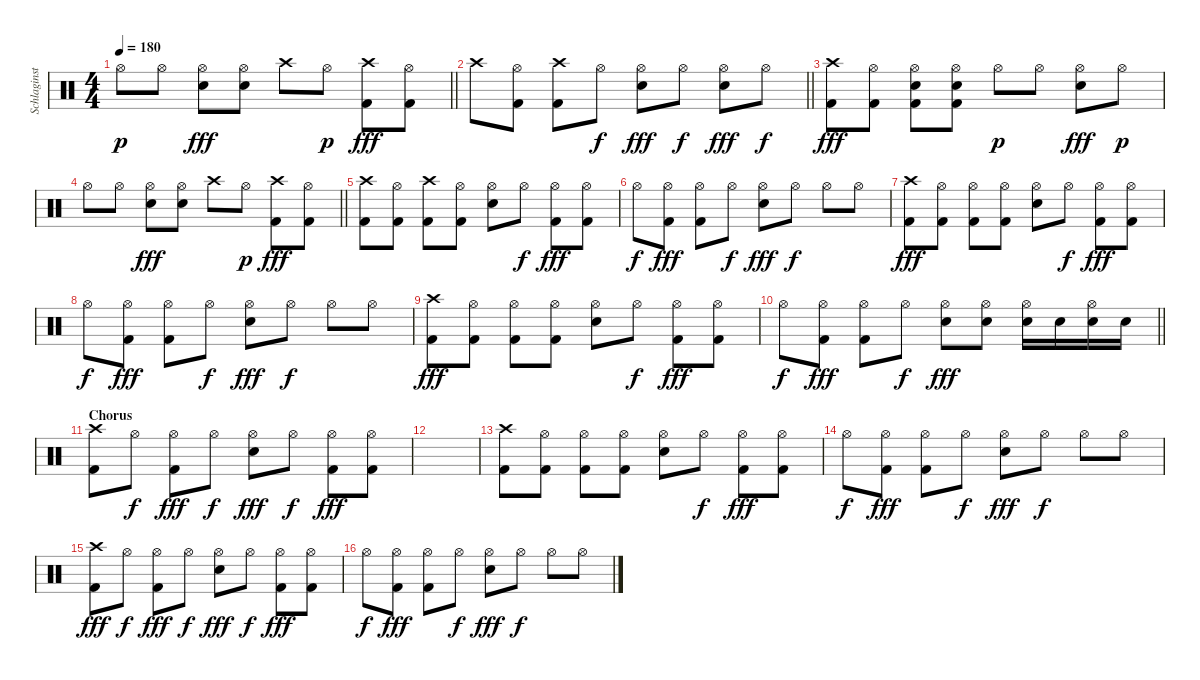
\track ("Schlaginstrumente - Auswahl" "Schlaginst") {instrument percussion}
\staff {score}
\articulation defaults
\ts (4 4)
\tempo 180
\clef neutral
\barLineRight lightlight
\ks c "Hi-Hat (open)".8{dy p} "Hi-Hat (open)".8
("Hi-Hat (open)" "Snare (hit) 2").8{dy fff} ("Hi-Hat (open)" "Snare (hit) 2").8 "Crash high (hit)".8 "Hi-Hat (open)".8{dy p} ("Crash high (hit)" "Kick (hit) 2").8{dy fff} ("Hi-Hat (open)" "Kick (hit) 2").8 |
\barLineRight lightlight "Crash high (hit)".8
("Hi-Hat (open)" "Kick (hit) 2").8 ("Crash high (hit)" "Kick (hit) 2").8 "Hi-Hat (open)".8{dy f} ("Hi-Hat (open)" "Snare (hit) 2").8{dy fff} "Hi-Hat (open)".8{dy f} ("Hi-Hat (open)" "Snare (hit) 2").8{dy fff} "Hi-Hat (open)".8{dy f} |
("Crash high (hit)" "Kick (hit) 2").8{dy fff} ("Hi-Hat (open)" "Kick (hit) 2").8 ("Hi-Hat (open)" "Snare (hit) 2" "Kick (hit) 2").8 ("Hi-Hat (open)" "Snare (hit) 2" "Kick (hit) 2").8 "Hi-Hat (open)".8{dy p} "Hi-Hat (open)".8 ("Hi-Hat (open)" "Snare (hit) 2").8{dy fff} "Hi-Hat (open)".8{dy p} |
\barLineRight lightlight "Hi-Hat (open)".8 "Hi-Hat (open)".8
("Hi-Hat (open)" "Snare (hit) 2").8{dy fff} ("Hi-Hat (open)" "Snare (hit) 2").8 "Crash high (hit)".8 "Hi-Hat (open)".8{dy p} ("Crash high (hit)" "Kick (hit) 2").8{dy fff} ("Hi-Hat (open)" "Kick (hit) 2").8 |
("Crash high (hit)" "Kick (hit) 2").8 ("Hi-Hat (open)" "Kick (hit) 2").8 ("Crash high (hit)" "Kick (hit) 2").8 ("Hi-Hat (open)" "Kick (hit) 2").8 ("Hi-Hat (open)" "Snare (hit) 2").8 "Hi-Hat (open)".8{dy f} ("Hi-Hat (open)" "Kick (hit) 2").8{dy fff} ("Hi-Hat (open)" "Kick (hit) 2").8 |
"Hi-Hat (open)".8{dy f} ("Hi-Hat (open)" "Kick (hit) 2").8{dy fff} ("Hi-Hat (open)" "Kick (hit) 2").8 "Hi-Hat (open)".8{dy f} ("Hi-Hat (open)" "Snare (hit) 2").8{dy fff} "Hi-Hat (open)".8{dy f} "Hi-Hat (open)".8 "Hi-Hat (open)".8 |
("Crash high (hit)" "Kick (hit) 2").8{dy fff} ("Hi-Hat (open)" "Kick (hit) 2").8 ("Hi-Hat (open)" "Kick (hit) 2").8 ("Hi-Hat (open)" "Kick (hit) 2").8 ("Hi-Hat (open)" "Snare (hit) 2").8 "Hi-Hat (open)".8{dy f} ("Hi-Hat (open)" "Kick (hit) 2").8{dy fff} ("Hi-Hat (open)" "Kick (hit) 2").8 |
"Hi-Hat (open)".8{dy f} ("Hi-Hat (open)" "Kick (hit) 2").8{dy fff} ("Hi-Hat (open)" "Kick (hit) 2").8 "Hi-Hat (open)".8{dy f} ("Hi-Hat (open)" "Snare (hit) 2").8{dy fff} "Hi-Hat (open)".8{dy f} "Hi-Hat (open)".8 "Hi-Hat (open)".8 |
("Crash high (hit)" "Kick (hit) 2").8{dy fff} ("Hi-Hat (open)" "Kick (hit) 2").8 ("Hi-Hat (open)" "Kick (hit) 2").8 ("Hi-Hat (open)" "Kick (hit) 2").8 ("Hi-Hat (open)" "Snare (hit) 2").8 "Hi-Hat (open)".8{dy f} ("Hi-Hat (open)" "Kick (hit) 2").8{dy fff} ("Hi-Hat (open)" "Kick (hit) 2").8 |
\barLineRight lightlight "Hi-Hat (open)".8{dy f}
("Hi-Hat (open)" "Kick (hit) 2").8{dy fff} ("Hi-Hat (open)" "Kick (hit) 2").8 "Hi-Hat (open)".8{dy f} ("Hi-Hat (open)" "Snare (hit) 2").8{dy fff} ("Hi-Hat (open)" "Snare (hit) 2").8 ("Hi-Hat (open)" "Snare (hit) 2").16 "Snare (hit) 2".16 ("Hi-Hat (open)" "Snare (hit) 2").16 "Snare (hit) 2".16 |
\section ("" "Chorus")
("Crash high (hit)" "Kick (hit) 2").8 "Hi-Hat (open)".8{dy f} ("Hi-Hat (open)" "Kick (hit) 2").8{dy fff} "Hi-Hat (open)".8{dy f} ("Hi-Hat (open)" "Snare (hit) 2").8{dy fff} "Hi-Hat (open)".8{dy f} ("Hi-Hat (open)" "Kick (hit) 2").8{dy fff} ("Hi-Hat (open)" "Kick (hit) 2").8 |
|
("Crash high (hit)" "Kick (hit) 2").8 ("Hi-Hat (open)" "Kick (hit) 2").8 ("Hi-Hat (open)" "Kick (hit) 2").8 ("Hi-Hat (open)" "Kick (hit) 2").8 ("Hi-Hat (open)" "Snare (hit) 2").8 "Hi-Hat (open)".8{dy f} ("Hi-Hat (open)" "Kick (hit) 2").8{dy fff} ("Hi-Hat (open)" "Kick (hit) 2").8 |
"Hi-Hat (open)".8{dy f} ("Hi-Hat (open)" "Kick (hit) 2").8{dy fff} ("Hi-Hat (open)" "Kick (hit) 2").8 "Hi-Hat (open)".8{dy f} ("Hi-Hat (open)" "Snare (hit) 2").8{dy fff} "Hi-Hat (open)".8{dy f} "Hi-Hat (open)".8 "Hi-Hat (open)".8 |
("Crash high (hit)" "Kick (hit) 2").8{dy fff} "Hi-Hat (open)".8{dy f} ("Hi-Hat (open)" "Kick (hit) 2").8{dy fff} "Hi-Hat (open)".8{dy f} ("Hi-Hat (open)" "Snare (hit) 2").8{dy fff} "Hi-Hat (open)".8{dy f} ("Hi-Hat (open)" "Kick (hit) 2").8{dy fff} ("Hi-Hat (open)" "Kick (hit) 2").8 |
"Hi-Hat (open)".8{dy f} ("Hi-Hat (open)" "Kick (hit) 2").8{dy fff} ("Hi-Hat (open)" "Kick (hit) 2").8 "Hi-Hat (open)".8{dy f} ("Hi-Hat (open)" "Snare (hit) 2").8{dy fff} "Hi-Hat (open)".8{dy f} "Hi-Hat (open)".8 "Hi-Hat (open)".8
